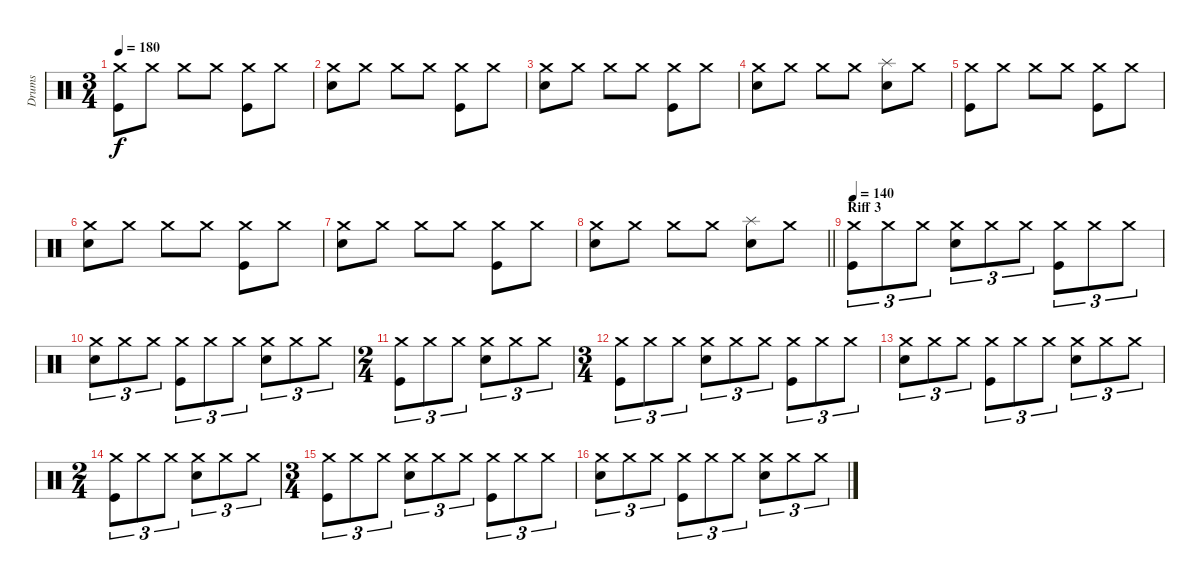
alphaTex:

\track ("Drums" "Drums") {instrument percussion}
\staff {score}
\articulation defaults
\ts (3 4)
\tempo 180
\clef neutral
\ks c
("Crash medium (hit)" "Kick (hit)").8{dy f} "Crash medium (hit)".8 "Crash medium (hit)".8 "Crash medium (hit)".8 ("Crash medium (hit)" "Kick (hit)").8 "Crash medium (hit)".8 |
("Crash medium (hit)" "Electric Snare (hit)").8 "Crash medium (hit)".8 "Crash medium (hit)".8 "Crash medium (hit)".8 ("Crash medium (hit)" "Kick (hit)").8 "Crash medium (hit)".8 |
("Crash medium (hit)" "Electric Snare (hit)").8 "Crash medium (hit)".8 "Crash medium (hit)".8 "Crash medium (hit)".8 ("Crash medium (hit)" "Kick (hit)").8 "Crash medium (hit)".8 |
("Crash medium (hit)" "Electric Snare (hit)").8 "Crash medium (hit)".8 "Crash medium (hit)".8 "Crash medium (hit)".8 ("Splash (hit)" "Electric Snare (hit)").8 "Crash medium (hit)".8 |
("Crash medium (hit)" "Kick (hit)").8 "Crash medium (hit)".8 "Crash medium (hit)".8 "Crash medium (hit)".8 ("Crash medium (hit)" "Kick (hit)").8 "Crash medium (hit)".8 |
("Crash medium (hit)" "Electric Snare (hit)").8 "Crash medium (hit)".8 "Crash medium (hit)".8 "Crash medium (hit)".8 ("Crash medium (hit)" "Kick (hit)").8 "Crash medium (hit)".8 |
("Crash medium (hit)" "Electric Snare (hit)").8 "Crash medium (hit)".8 "Crash medium (hit)".8 "Crash medium (hit)".8 ("Crash medium (hit)" "Kick (hit)").8 "Crash medium (hit)".8 |
\barLineRight lightlight
("Crash medium (hit)" "Electric Snare (hit)").8 "Crash medium (hit)".8 "Crash medium (hit)".8 "Crash medium (hit)".8 ("Splash (hit)" "Electric Snare (hit)").8 "Crash medium (hit)".8 |
\section ("" "Riff 3")
\tempo 140
("Crash medium (hit)" "Kick (hit)").8{tu (3 2)} "Crash medium (hit)".8{tu (3 2)} "Crash medium (hit)".8{tu (3 2)} ("Crash medium (hit)" "Electric Snare (hit)").8{tu (3 2)} "Crash medium (hit)".8{tu (3 2)} "Crash medium (hit)".8{tu (3 2)} ("Crash medium (hit)" "Kick (hit)").8{tu (3 2)} "Crash medium (hit)".8{tu (3 2)} "Crash medium (hit)".8{tu (3 2)} |
("Crash medium (hit)" "Electric Snare (hit)").8{tu (3 2)} "Crash medium (hit)".8{tu (3 2)} "Crash medium (hit)".8{tu (3 2)} ("Crash medium (hit)" "Kick (hit)").8{tu (3 2)} "Crash medium (hit)".8{tu (3 2)} "Crash medium (hit)".8{tu (3 2)} ("Crash medium (hit)" "Electric Snare (hit)").8{tu (3 2)} "Crash medium (hit)".8{tu (3 2)} "Crash medium (hit)".8{tu (3 2)} |
\ts (2 4)
("Crash medium (hit)" "Kick (hit)").8{tu (3 2)} "Crash medium (hit)".8{tu (3 2)} "Crash medium (hit)".8{tu (3 2)} ("Crash medium (hit)" "Electric Snare (hit)").8{tu (3 2)} "Crash medium (hit)".8{tu (3 2)} "Crash medium (hit)".8{tu (3 2)} |
\ts (3 4)
("Crash medium (hit)" "Kick (hit)").8{tu (3 2)} "Crash medium (hit)".8{tu (3 2)} "Crash medium (hit)".8{tu (3 2)} ("Crash medium (hit)" "Electric Snare (hit)").8{tu (3 2)} "Crash medium (hit)".8{tu (3 2)} "Crash medium (hit)".8{tu (3 2)} ("Crash medium (hit)" "Kick (hit)").8{tu (3 2)} "Crash medium (hit)".8{tu (3 2)} "Crash medium (hit)".8{tu (3 2)} |
("Crash medium (hit)" "Electric Snare (hit)").8{tu (3 2)} "Crash medium (hit)".8{tu (3 2)} "Crash medium (hit)".8{tu (3 2)} ("Crash medium (hit)" "Kick (hit)").8{tu (3 2)} "Crash medium (hit)".8{tu (3 2)} "Crash medium (hit)".8{tu (3 2)} ("Crash medium (hit)" "Electric Snare (hit)").8{tu (3 2)} "Crash medium (hit)".8{tu (3 2)} "Crash medium (hit)".8{tu (3 2)} |
\ts (2 4)
("Crash medium (hit)" "Kick (hit)").8{tu (3 2)} "Crash medium (hit)".8{tu (3 2)} "Crash medium (hit)".8{tu (3 2)} ("Crash medium (hit)" "Electric Snare (hit)").8{tu (3 2)} "Crash medium (hit)".8{tu (3 2)} "Crash medium (hit)".8{tu (3 2)} |
\ts (3 4)
("Crash medium (hit)" "Kick (hit)").8{tu (3 2)} "Crash medium (hit)".8{tu (3 2)} "Crash medium (hit)".8{tu (3 2)} ("Crash medium (hit)" "Electric Snare (hit)").8{tu (3 2)} "Crash medium (hit)".8{tu (3 2)} "Crash medium (hit)".8{tu (3 2)} ("Crash medium (hit)" "Kick (hit)").8{tu (3 2)} "Crash medium (hit)".8{tu (3 2)} "Crash medium (hit)".8{tu (3 2)} |
("Crash medium (hit)" "Electric Snare (hit)").8{tu (3 2)} "Crash medium (hit)".8{tu (3 2)} "Crash medium (hit)".8{tu (3 2)} ("Crash medium (hit)" "Kick (hit)").8{tu (3 2)} "Crash medium (hit)".8{tu (3 2)} "Crash medium (hit)".8{tu (3 2)} ("Crash medium (hit)" "Electric Snare (hit)").8{tu (3 2)} "Crash medium (hit)".8{tu (3 2)} "Crash medium (hit)".8{tu (3 2)}
